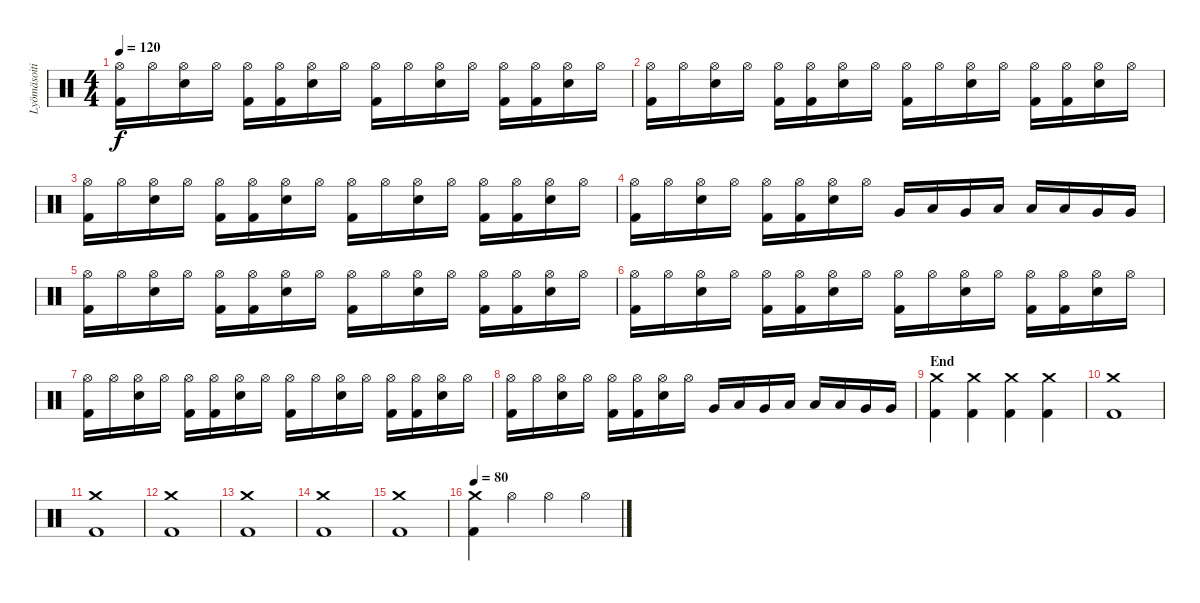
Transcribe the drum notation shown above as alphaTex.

\track ("Lyömäsoitin" "Lyömäsoiti") {instrument percussion}
\staff {score}
\articulation defaults
\ts (4 4)
\tempo 120
\clef neutral
\ks c
("Hi-Hat (open)" "Kick (hit) 2").16{dy f} "Hi-Hat (open)".16 ("Hi-Hat (open)" "Electric Snare (hit)").16 "Hi-Hat (open)".16 ("Hi-Hat (open)" "Kick (hit) 2").16 ("Hi-Hat (open)" "Kick (hit) 2").16 ("Hi-Hat (open)" "Electric Snare (hit)").16 "Hi-Hat (open)".16 ("Hi-Hat (open)" "Kick (hit) 2").16 "Hi-Hat (open)".16 ("Hi-Hat (open)" "Electric Snare (hit)").16 "Hi-Hat (open)".16 ("Hi-Hat (open)" "Kick (hit) 2").16 ("Hi-Hat (open)" "Kick (hit) 2").16 ("Hi-Hat (open)" "Electric Snare (hit)").16 "Hi-Hat (open)".16 |
("Hi-Hat (open)" "Kick (hit) 2").16 "Hi-Hat (open)".16 ("Hi-Hat (open)" "Electric Snare (hit)").16 "Hi-Hat (open)".16 ("Hi-Hat (open)" "Kick (hit) 2").16 ("Hi-Hat (open)" "Kick (hit) 2").16 ("Hi-Hat (open)" "Electric Snare (hit)").16 "Hi-Hat (open)".16 ("Hi-Hat (open)" "Kick (hit) 2").16 "Hi-Hat (open)".16 ("Hi-Hat (open)" "Electric Snare (hit)").16 "Hi-Hat (open)".16 ("Hi-Hat (open)" "Kick (hit) 2").16 ("Hi-Hat (open)" "Kick (hit) 2").16 ("Hi-Hat (open)" "Electric Snare (hit)").16 "Hi-Hat (open)".16 |
("Hi-Hat (open)" "Kick (hit) 2").16 "Hi-Hat (open)".16 ("Hi-Hat (open)" "Electric Snare (hit)").16 "Hi-Hat (open)".16 ("Hi-Hat (open)" "Kick (hit) 2").16 ("Hi-Hat (open)" "Kick (hit) 2").16 ("Hi-Hat (open)" "Electric Snare (hit)").16 "Hi-Hat (open)".16 ("Hi-Hat (open)" "Kick (hit) 2").16 "Hi-Hat (open)".16 ("Hi-Hat (open)" "Electric Snare (hit)").16 "Hi-Hat (open)".16 ("Hi-Hat (open)" "Kick (hit) 2").16 ("Hi-Hat (open)" "Kick (hit) 2").16 ("Hi-Hat (open)" "Electric Snare (hit)").16 "Hi-Hat (open)".16 |
("Hi-Hat (open)" "Kick (hit) 2").16 "Hi-Hat (open)".16 ("Hi-Hat (open)" "Electric Snare (hit)").16 "Hi-Hat (open)".16 ("Hi-Hat (open)" "Kick (hit) 2").16 ("Hi-Hat (open)" "Kick (hit) 2").16 ("Hi-Hat (open)" "Electric Snare (hit)").16 "Hi-Hat (open)".16 "Very Low Tom (hit)".16 "Low Floor Tom (hit)".16 "Very Low Tom (hit)".16 "Low Floor Tom (hit)".16 "Low Tom (hit)".16 "Low Tom (hit)".16 "Very Low Tom (hit)".16 "Very Low Tom (hit)".16 |
("Hi-Hat (open)" "Kick (hit) 2").16 "Hi-Hat (open)".16 ("Hi-Hat (open)" "Electric Snare (hit)").16 "Hi-Hat (open)".16 ("Hi-Hat (open)" "Kick (hit) 2").16 ("Hi-Hat (open)" "Kick (hit) 2").16 ("Hi-Hat (open)" "Electric Snare (hit)").16 "Hi-Hat (open)".16 ("Hi-Hat (open)" "Kick (hit) 2").16 "Hi-Hat (open)".16 ("Hi-Hat (open)" "Electric Snare (hit)").16 "Hi-Hat (open)".16 ("Hi-Hat (open)" "Kick (hit) 2").16 ("Hi-Hat (open)" "Kick (hit) 2").16 ("Hi-Hat (open)" "Electric Snare (hit)").16 "Hi-Hat (open)".16 |
("Hi-Hat (open)" "Kick (hit) 2").16 "Hi-Hat (open)".16 ("Hi-Hat (open)" "Electric Snare (hit)").16 "Hi-Hat (open)".16 ("Hi-Hat (open)" "Kick (hit) 2").16 ("Hi-Hat (open)" "Kick (hit) 2").16 ("Hi-Hat (open)" "Electric Snare (hit)").16 "Hi-Hat (open)".16 ("Hi-Hat (open)" "Kick (hit) 2").16 "Hi-Hat (open)".16 ("Hi-Hat (open)" "Electric Snare (hit)").16 "Hi-Hat (open)".16 ("Hi-Hat (open)" "Kick (hit) 2").16 ("Hi-Hat (open)" "Kick (hit) 2").16 ("Hi-Hat (open)" "Electric Snare (hit)").16 "Hi-Hat (open)".16 |
("Hi-Hat (open)" "Kick (hit) 2").16 "Hi-Hat (open)".16 ("Hi-Hat (open)" "Electric Snare (hit)").16 "Hi-Hat (open)".16 ("Hi-Hat (open)" "Kick (hit) 2").16 ("Hi-Hat (open)" "Kick (hit) 2").16 ("Hi-Hat (open)" "Electric Snare (hit)").16 "Hi-Hat (open)".16 ("Hi-Hat (open)" "Kick (hit) 2").16 "Hi-Hat (open)".16 ("Hi-Hat (open)" "Electric Snare (hit)").16 "Hi-Hat (open)".16 ("Hi-Hat (open)" "Kick (hit) 2").16 ("Hi-Hat (open)" "Kick (hit) 2").16 ("Hi-Hat (open)" "Electric Snare (hit)").16 "Hi-Hat (open)".16 |
("Hi-Hat (open)" "Kick (hit) 2").16 "Hi-Hat (open)".16 ("Hi-Hat (open)" "Electric Snare (hit)").16 "Hi-Hat (open)".16 ("Hi-Hat (open)" "Kick (hit) 2").16 ("Hi-Hat (open)" "Kick (hit) 2").16 ("Hi-Hat (open)" "Electric Snare (hit)").16 "Hi-Hat (open)".16 "Very Low Tom (hit)".16 "Low Floor Tom (hit)".16 "Very Low Tom (hit)".16 "Low Floor Tom (hit)".16 "Low Tom (hit)".16 "Low Tom (hit)".16 "Very Low Tom (hit)".16 "Very Low Tom (hit)".16 |
\section ("" "End")
("Crash medium (hit)" "Kick (hit) 2").4 ("Crash medium (hit)" "Kick (hit) 2").4 ("Crash medium (hit)" "Kick (hit) 2").4 ("Crash medium (hit)" "Kick (hit) 2").4 |
("Crash medium (hit)" "Kick (hit) 2").1 |
("Crash medium (hit)" "Kick (hit) 2").1 |
("Crash medium (hit)" "Kick (hit) 2").1 |
("Crash medium (hit)" "Kick (hit) 2").1 |
("Crash medium (hit)" "Kick (hit) 2").1 |
("Crash medium (hit)" "Kick (hit) 2").1 |
\tempo 80
("Crash medium (hit)" "Kick (hit) 2").4 "Hi-Hat (open)".4 "Hi-Hat (open)".4 "Hi-Hat (open)".4
